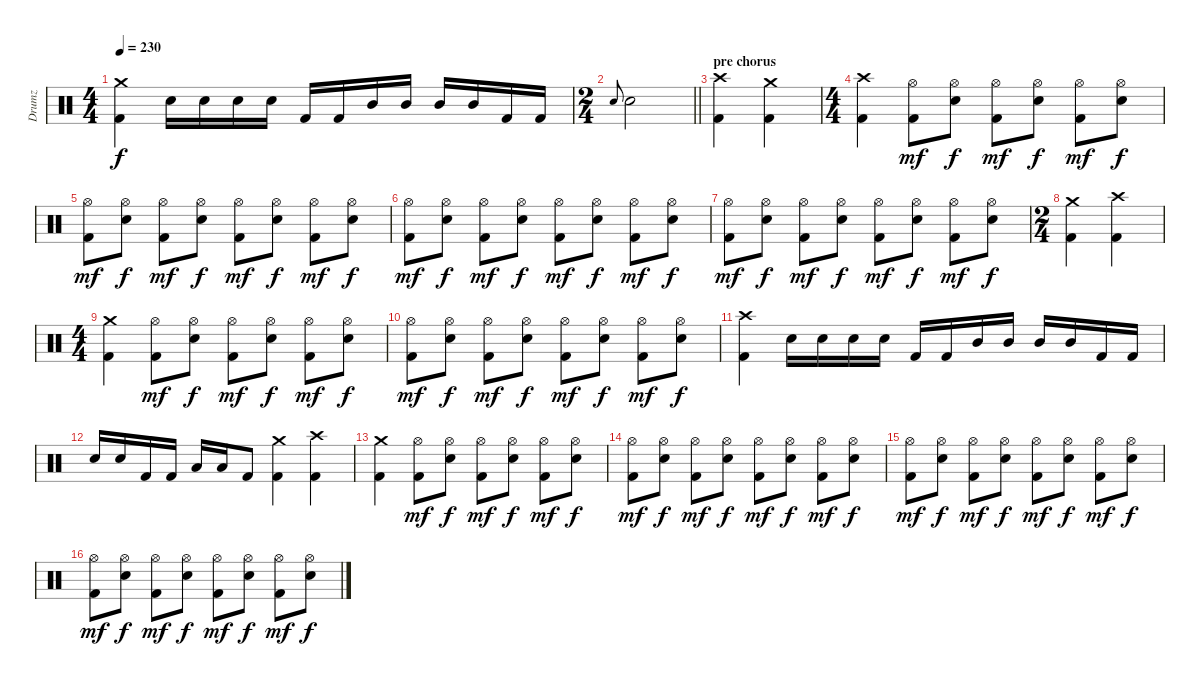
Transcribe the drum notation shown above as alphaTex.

\track ("Drumz" "Drumz") {instrument percussion}
\staff {score}
\articulation defaults
\ts (4 4)
\tempo 230
\clef neutral
\ks c
("Crash medium (hit)" "Kick (hit) 2").4{dy f} "Electric Snare (hit)".16 "Electric Snare (hit)".16 "Electric Snare (hit)".16 "Electric Snare (hit)".16 "Kick (hit) 2".16 "Kick (hit) 2".16 "Mid Tom (hit)".16 "Mid Tom (hit)".16 "Mid Tom (hit)".16 "Mid Tom (hit)".16 "Kick (hit) 2".16 "Kick (hit) 2".16 |
\ts (2 4)
\barLineRight lightlight "Electric Snare (hit)".8{gr onbeat} "Electric Snare (hit)".2
|
\section ("" "pre chorus")
("Crash high (hit)" "Kick (hit) 2").4 ("Crash medium (hit)" "Kick (hit) 2").4 |
\ts (4 4)
("Crash high (hit)" "Kick (hit) 2").4 ("Hi-Hat (open)" "Kick (hit) 2").8{dy mf} ("Hi-Hat (open)" "Electric Snare (hit)").8{dy f} ("Hi-Hat (open)" "Kick (hit) 2").8{dy mf} ("Hi-Hat (open)" "Electric Snare (hit)").8{dy f} ("Hi-Hat (open)" "Kick (hit) 2").8{dy mf} ("Hi-Hat (open)" "Electric Snare (hit)").8{dy f} |
("Hi-Hat (open)" "Kick (hit) 2").8{dy mf} ("Hi-Hat (open)" "Electric Snare (hit)").8{dy f} ("Hi-Hat (open)" "Kick (hit) 2").8{dy mf} ("Hi-Hat (open)" "Electric Snare (hit)").8{dy f} ("Hi-Hat (open)" "Kick (hit) 2").8{dy mf} ("Hi-Hat (open)" "Electric Snare (hit)").8{dy f} ("Hi-Hat (open)" "Kick (hit) 2").8{dy mf} ("Hi-Hat (open)" "Electric Snare (hit)").8{dy f} |
("Hi-Hat (open)" "Kick (hit) 2").8{dy mf} ("Hi-Hat (open)" "Electric Snare (hit)").8{dy f} ("Hi-Hat (open)" "Kick (hit) 2").8{dy mf} ("Hi-Hat (open)" "Electric Snare (hit)").8{dy f} ("Hi-Hat (open)" "Kick (hit) 2").8{dy mf} ("Hi-Hat (open)" "Electric Snare (hit)").8{dy f} ("Hi-Hat (open)" "Kick (hit) 2").8{dy mf} ("Hi-Hat (open)" "Electric Snare (hit)").8{dy f} |
("Hi-Hat (open)" "Kick (hit) 2").8{dy mf} ("Hi-Hat (open)" "Electric Snare (hit)").8{dy f} ("Hi-Hat (open)" "Kick (hit) 2").8{dy mf} ("Hi-Hat (open)" "Electric Snare (hit)").8{dy f} ("Hi-Hat (open)" "Kick (hit) 2").8{dy mf} ("Hi-Hat (open)" "Electric Snare (hit)").8{dy f} ("Hi-Hat (open)" "Kick (hit) 2").8{dy mf} ("Hi-Hat (open)" "Electric Snare (hit)").8{dy f} |
\ts (2 4)
("Crash medium (hit)" "Kick (hit) 2").4 ("Crash high (hit)" "Kick (hit) 2").4 |
\ts (4 4)
("Crash medium (hit)" "Kick (hit) 2").4 ("Hi-Hat (open)" "Kick (hit) 2").8{dy mf} ("Hi-Hat (open)" "Electric Snare (hit)").8{dy f} ("Hi-Hat (open)" "Kick (hit) 2").8{dy mf} ("Hi-Hat (open)" "Electric Snare (hit)").8{dy f} ("Hi-Hat (open)" "Kick (hit) 2").8{dy mf} ("Hi-Hat (open)" "Electric Snare (hit)").8{dy f} |
("Hi-Hat (open)" "Kick (hit) 2").8{dy mf} ("Hi-Hat (open)" "Electric Snare (hit)").8{dy f} ("Hi-Hat (open)" "Kick (hit) 2").8{dy mf} ("Hi-Hat (open)" "Electric Snare (hit)").8{dy f} ("Hi-Hat (open)" "Kick (hit) 2").8{dy mf} ("Hi-Hat (open)" "Electric Snare (hit)").8{dy f} ("Hi-Hat (open)" "Kick (hit) 2").8{dy mf} ("Hi-Hat (open)" "Electric Snare (hit)").8{dy f} |
("Crash high (hit)" "Kick (hit) 2").4 "Electric Snare (hit)".16 "Electric Snare (hit)".16 "Electric Snare (hit)".16 "Electric Snare (hit)".16 "Kick (hit) 2".16 "Kick (hit) 2".16 "Mid Tom (hit)".16 "Mid Tom (hit)".16 "Mid Tom (hit)".16 "Mid Tom (hit)".16 "Kick (hit) 2".16 "Kick (hit) 2".16 |
"Electric Snare (hit)".16 "Electric Snare (hit)".16 "Kick (hit) 2".16 "Kick (hit) 2".16 "Low Tom (hit)".16 "Low Tom (hit)".16 "Kick (hit) 2".8 ("Crash medium (hit)" "Kick (hit) 2").4 ("Crash high (hit)" "Kick (hit) 2").4 |
("Crash medium (hit)" "Kick (hit) 2").4 ("Hi-Hat (open)" "Kick (hit) 2").8{dy mf} ("Hi-Hat (open)" "Electric Snare (hit)").8{dy f} ("Hi-Hat (open)" "Kick (hit) 2").8{dy mf} ("Hi-Hat (open)" "Electric Snare (hit)").8{dy f} ("Hi-Hat (open)" "Kick (hit) 2").8{dy mf} ("Hi-Hat (open)" "Electric Snare (hit)").8{dy f} |
("Hi-Hat (open)" "Kick (hit) 2").8{dy mf} ("Hi-Hat (open)" "Electric Snare (hit)").8{dy f} ("Hi-Hat (open)" "Kick (hit) 2").8{dy mf} ("Hi-Hat (open)" "Electric Snare (hit)").8{dy f} ("Hi-Hat (open)" "Kick (hit) 2").8{dy mf} ("Hi-Hat (open)" "Electric Snare (hit)").8{dy f} ("Hi-Hat (open)" "Kick (hit) 2").8{dy mf} ("Hi-Hat (open)" "Electric Snare (hit)").8{dy f} |
("Hi-Hat (open)" "Kick (hit) 2").8{dy mf} ("Hi-Hat (open)" "Electric Snare (hit)").8{dy f} ("Hi-Hat (open)" "Kick (hit) 2").8{dy mf} ("Hi-Hat (open)" "Electric Snare (hit)").8{dy f} ("Hi-Hat (open)" "Kick (hit) 2").8{dy mf} ("Hi-Hat (open)" "Electric Snare (hit)").8{dy f} ("Hi-Hat (open)" "Kick (hit) 2").8{dy mf} ("Hi-Hat (open)" "Electric Snare (hit)").8{dy f} |
("Hi-Hat (open)" "Kick (hit) 2").8{dy mf} ("Hi-Hat (open)" "Electric Snare (hit)").8{dy f} ("Hi-Hat (open)" "Kick (hit) 2").8{dy mf} ("Hi-Hat (open)" "Electric Snare (hit)").8{dy f} ("Hi-Hat (open)" "Kick (hit) 2").8{dy mf} ("Hi-Hat (open)" "Electric Snare (hit)").8{dy f} ("Hi-Hat (open)" "Kick (hit) 2").8{dy mf} ("Hi-Hat (open)" "Electric Snare (hit)").8{dy f}
